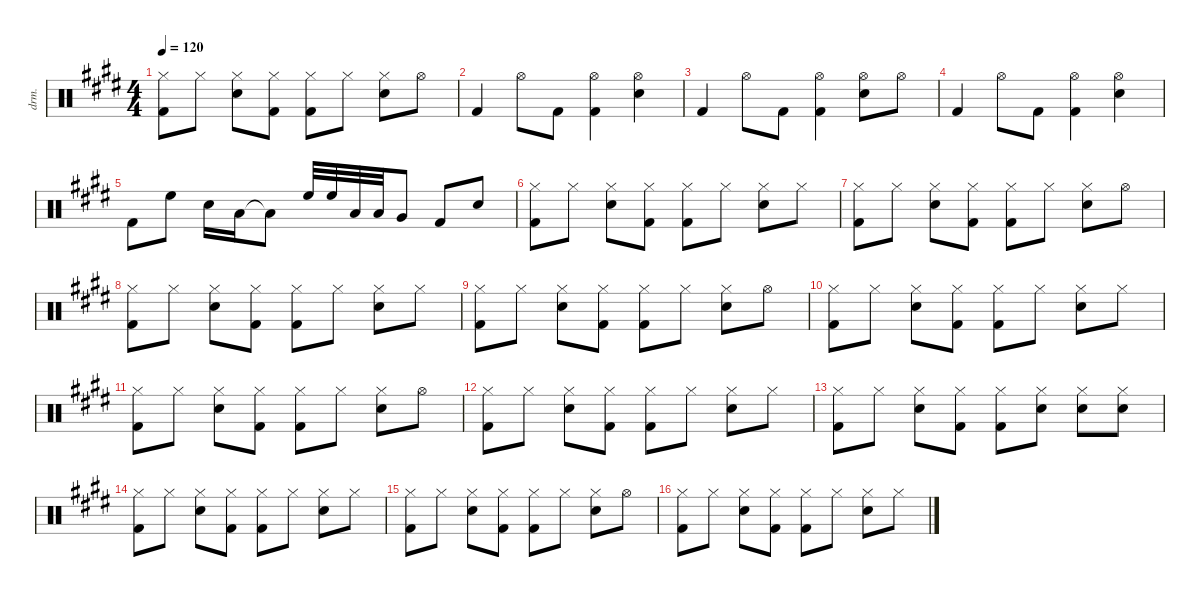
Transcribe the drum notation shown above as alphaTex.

\defaultSystemsLayout 4
\hideDynamics
\bracketExtendMode nobrackets
\track ("Drum" "drm.") {instrument percussion}
\staff {score}
\articulation defaults
\ts (4 4)
\tempo 120
\clef neutral
\ks e
("Hi-Hat (closed)"{acc forcenatural} "Kick (hit) 2"{acc forcenatural}).8{dy f beam Down} "Hi-Hat (closed)"{acc forcenatural}.8{beam Down} ("Hi-Hat (closed)"{acc forcenatural} "Snare (hit) 2"{acc forcenatural}).8{beam Down} ("Hi-Hat (closed)"{acc forcenatural} "Kick (hit) 2"{acc forcenatural}).8{beam Down} ("Hi-Hat (closed)"{acc forcenatural} "Kick (hit) 2"{acc forcenatural}).8{beam Down} "Hi-Hat (closed)"{acc forcenatural}.8{beam Down} ("Hi-Hat (closed)"{acc forcenatural} "Snare (hit) 2"{acc forcenatural}).8{beam Down} "Hi-Hat (open)"{acc forcenatural}.8{beam Down} |
"Kick (hit) 2"{acc forcenatural}.4{beam Up} "Hi-Hat (open)"{acc forcenatural}.8{beam Down} "Kick (hit) 2"{acc forcenatural}.8{beam Down} ("Hi-Hat (open)"{acc forcenatural} "Kick (hit) 2"{acc forcenatural}).4{beam Down} ("Hi-Hat (open)"{acc forcenatural} "Snare (hit) 2"{acc forcenatural}).4{beam Down} |
"Kick (hit) 2"{acc forcenatural}.4{beam Up} "Hi-Hat (open)"{acc forcenatural}.8{beam Down} "Kick (hit) 2"{acc forcenatural}.8{beam Down} ("Hi-Hat (open)"{acc forcenatural} "Kick (hit) 2"{acc forcenatural}).4{beam Down} ("Hi-Hat (open)"{acc forcenatural} "Snare (hit) 2"{acc forcenatural}).8{beam Down} "Hi-Hat (open)"{acc forcenatural}.8{beam Down} |
"Kick (hit) 2"{acc forcenatural}.4{beam Up} "Hi-Hat (open)"{acc forcenatural}.8{beam Down} "Kick (hit) 2"{acc forcenatural}.8{beam Down} ("Hi-Hat (open)"{acc forcenatural} "Kick (hit) 2"{acc forcenatural}).4{beam Down} ("Hi-Hat (open)"{acc forcenatural} "Snare (hit) 2"{acc forcenatural}).4{beam Down} |
"Kick (hit) 2"{acc forcenatural}.8{beam Down} "High Floor Tom (hit)"{acc forcenatural}.8{beam Down} "Snare (hit) 2"{acc forcenatural}.16{beam Down} "Low Tom (hit)"{acc forcenatural}.16{beam Down} "Low Tom (hit)"{t acc forcenatural}.8{beam Down} "High Floor Tom (hit)"{acc forcenatural}.32{beam Up} "High Floor Tom (hit)"{acc forcenatural}.32{beam Up} "Low Tom (hit)"{acc forcenatural}.32{beam Up} "Low Tom (hit)"{acc forcenatural}.32{beam Up} "Very Low Tom (hit)"{acc forcenatural}.8{beam Up} "Kick (hit) 2"{acc forcenatural}.8{beam Up} "Snare (hit) 2"{acc forcenatural}.8{beam Up} |
("Hi-Hat (closed)"{acc forcenatural} "Kick (hit) 2"{acc forcenatural}).8{beam Down} "Hi-Hat (closed)"{acc forcenatural}.8{beam Down} ("Hi-Hat (closed)"{acc forcenatural} "Snare (hit) 2"{acc forcenatural}).8{beam Down} ("Hi-Hat (closed)"{acc forcenatural} "Kick (hit) 2"{acc forcenatural}).8{beam Down} ("Hi-Hat (closed)"{acc forcenatural} "Kick (hit) 2"{acc forcenatural}).8{beam Down} "Hi-Hat (closed)"{acc forcenatural}.8{beam Down} ("Hi-Hat (closed)"{acc forcenatural} "Snare (hit) 2"{acc forcenatural}).8{beam Down} "Hi-Hat (closed)"{acc forcenatural}.8{beam Down} |
("Hi-Hat (closed)"{acc forcenatural} "Kick (hit) 2"{acc forcenatural}).8{beam Down} "Hi-Hat (closed)"{acc forcenatural}.8{beam Down} ("Hi-Hat (closed)"{acc forcenatural} "Snare (hit) 2"{acc forcenatural}).8{beam Down} ("Hi-Hat (closed)"{acc forcenatural} "Kick (hit) 2"{acc forcenatural}).8{beam Down} ("Hi-Hat (closed)"{acc forcenatural} "Kick (hit) 2"{acc forcenatural}).8{beam Down} "Hi-Hat (closed)"{acc forcenatural}.8{beam Down} ("Hi-Hat (closed)"{acc forcenatural} "Snare (hit) 2"{acc forcenatural}).8{beam Down} "Hi-Hat (open)"{acc forcenatural}.8{beam Down} |
("Hi-Hat (closed)"{acc forcenatural} "Kick (hit) 2"{acc forcenatural}).8{beam Down} "Hi-Hat (closed)"{acc forcenatural}.8{beam Down} ("Hi-Hat (closed)"{acc forcenatural} "Snare (hit) 2"{acc forcenatural}).8{beam Down} ("Hi-Hat (closed)"{acc forcenatural} "Kick (hit) 2"{acc forcenatural}).8{beam Down} ("Hi-Hat (closed)"{acc forcenatural} "Kick (hit) 2"{acc forcenatural}).8{beam Down} "Hi-Hat (closed)"{acc forcenatural}.8{beam Down} ("Hi-Hat (closed)"{acc forcenatural} "Snare (hit) 2"{acc forcenatural}).8{beam Down} "Hi-Hat (closed)"{acc forcenatural}.8{beam Down} |
("Hi-Hat (closed)"{acc forcenatural} "Kick (hit) 2"{acc forcenatural}).8{beam Down} "Hi-Hat (closed)"{acc forcenatural}.8{beam Down} ("Hi-Hat (closed)"{acc forcenatural} "Snare (hit) 2"{acc forcenatural}).8{beam Down} ("Hi-Hat (closed)"{acc forcenatural} "Kick (hit) 2"{acc forcenatural}).8{beam Down} ("Hi-Hat (closed)"{acc forcenatural} "Kick (hit) 2"{acc forcenatural}).8{beam Down} "Hi-Hat (closed)"{acc forcenatural}.8{beam Down} ("Hi-Hat (closed)"{acc forcenatural} "Snare (hit) 2"{acc forcenatural}).8{beam Down} "Hi-Hat (open)"{acc forcenatural}.8{beam Down} |
("Hi-Hat (closed)"{acc forcenatural} "Kick (hit) 2"{acc forcenatural}).8{beam Down} "Hi-Hat (closed)"{acc forcenatural}.8{beam Down} ("Hi-Hat (closed)"{acc forcenatural} "Snare (hit) 2"{acc forcenatural}).8{beam Down} ("Hi-Hat (closed)"{acc forcenatural} "Kick (hit) 2"{acc forcenatural}).8{beam Down} ("Hi-Hat (closed)"{acc forcenatural} "Kick (hit) 2"{acc forcenatural}).8{beam Down} "Hi-Hat (closed)"{acc forcenatural}.8{beam Down} ("Hi-Hat (closed)"{acc forcenatural} "Snare (hit) 2"{acc forcenatural}).8{beam Down} "Hi-Hat (closed)"{acc forcenatural}.8{beam Down} |
("Hi-Hat (closed)"{acc forcenatural} "Kick (hit) 2"{acc forcenatural}).8{beam Down} "Hi-Hat (closed)"{acc forcenatural}.8{beam Down} ("Hi-Hat (closed)"{acc forcenatural} "Snare (hit) 2"{acc forcenatural}).8{beam Down} ("Hi-Hat (closed)"{acc forcenatural} "Kick (hit) 2"{acc forcenatural}).8{beam Down} ("Hi-Hat (closed)"{acc forcenatural} "Kick (hit) 2"{acc forcenatural}).8{beam Down} "Hi-Hat (closed)"{acc forcenatural}.8{beam Down} ("Hi-Hat (closed)"{acc forcenatural} "Snare (hit) 2"{acc forcenatural}).8{beam Down} "Hi-Hat (open)"{acc forcenatural}.8{beam Down} |
("Hi-Hat (closed)"{acc forcenatural} "Kick (hit) 2"{acc forcenatural}).8{beam Down} "Hi-Hat (closed)"{acc forcenatural}.8{beam Down} ("Hi-Hat (closed)"{acc forcenatural} "Snare (hit) 2"{acc forcenatural}).8{beam Down} ("Hi-Hat (closed)"{acc forcenatural} "Kick (hit) 2"{acc forcenatural}).8{beam Down} ("Hi-Hat (closed)"{acc forcenatural} "Kick (hit) 2"{acc forcenatural}).8{beam Down} "Hi-Hat (closed)"{acc forcenatural}.8{beam Down} ("Hi-Hat (closed)"{acc forcenatural} "Snare (hit) 2"{acc forcenatural}).8{beam Down} "Hi-Hat (closed)"{acc forcenatural}.8{beam Down} |
("Hi-Hat (closed)"{acc forcenatural} "Kick (hit) 2"{acc forcenatural}).8{beam Down} "Hi-Hat (closed)"{acc forcenatural}.8{beam Down} ("Hi-Hat (closed)"{acc forcenatural} "Snare (hit) 2"{acc forcenatural}).8{beam Down} ("Hi-Hat (closed)"{acc forcenatural} "Kick (hit) 2"{acc forcenatural}).8{beam Down} ("Hi-Hat (closed)"{acc forcenatural} "Kick (hit) 2"{acc forcenatural}).8{beam Down} ("Hi-Hat (closed)"{acc forcenatural} "Snare (hit) 2"{acc forcenatural}).8{beam Down} ("Hi-Hat (closed)"{acc forcenatural} "Snare (hit) 2"{acc forcenatural}).8{beam Down} ("Hi-Hat (closed)"{acc forcenatural} "Snare (hit) 2"{acc forcenatural}).8{beam Down} |
("Hi-Hat (closed)"{acc forcenatural} "Kick (hit) 2"{acc forcenatural}).8{beam Down} "Hi-Hat (closed)"{acc forcenatural}.8{beam Down} ("Hi-Hat (closed)"{acc forcenatural} "Snare (hit) 2"{acc forcenatural}).8{beam Down} ("Hi-Hat (closed)"{acc forcenatural} "Kick (hit) 2"{acc forcenatural}).8{beam Down} ("Hi-Hat (closed)"{acc forcenatural} "Kick (hit) 2"{acc forcenatural}).8{beam Down} "Hi-Hat (closed)"{acc forcenatural}.8{beam Down} ("Hi-Hat (closed)"{acc forcenatural} "Snare (hit) 2"{acc forcenatural}).8{beam Down} "Hi-Hat (closed)"{acc forcenatural}.8{beam Down} |
("Hi-Hat (closed)"{acc forcenatural} "Kick (hit) 2"{acc forcenatural}).8{beam Down} "Hi-Hat (closed)"{acc forcenatural}.8{beam Down} ("Hi-Hat (closed)"{acc forcenatural} "Snare (hit) 2"{acc forcenatural}).8{beam Down} ("Hi-Hat (closed)"{acc forcenatural} "Kick (hit) 2"{acc forcenatural}).8{beam Down} ("Hi-Hat (closed)"{acc forcenatural} "Kick (hit) 2"{acc forcenatural}).8{beam Down} "Hi-Hat (closed)"{acc forcenatural}.8{beam Down} ("Hi-Hat (closed)"{acc forcenatural} "Snare (hit) 2"{acc forcenatural}).8{beam Down} "Hi-Hat (open)"{acc forcenatural}.8{beam Down} |
("Hi-Hat (closed)"{acc forcenatural} "Kick (hit) 2"{acc forcenatural}).8{beam Down} "Hi-Hat (closed)"{acc forcenatural}.8{beam Down} ("Hi-Hat (closed)"{acc forcenatural} "Snare (hit) 2"{acc forcenatural}).8{beam Down} ("Hi-Hat (closed)"{acc forcenatural} "Kick (hit) 2"{acc forcenatural}).8{beam Down} ("Hi-Hat (closed)"{acc forcenatural} "Kick (hit) 2"{acc forcenatural}).8{beam Down} "Hi-Hat (closed)"{acc forcenatural}.8{beam Down} ("Hi-Hat (closed)"{acc forcenatural} "Snare (hit) 2"{acc forcenatural}).8{beam Down} "Hi-Hat (closed)"{acc forcenatural}.8{beam Down}
